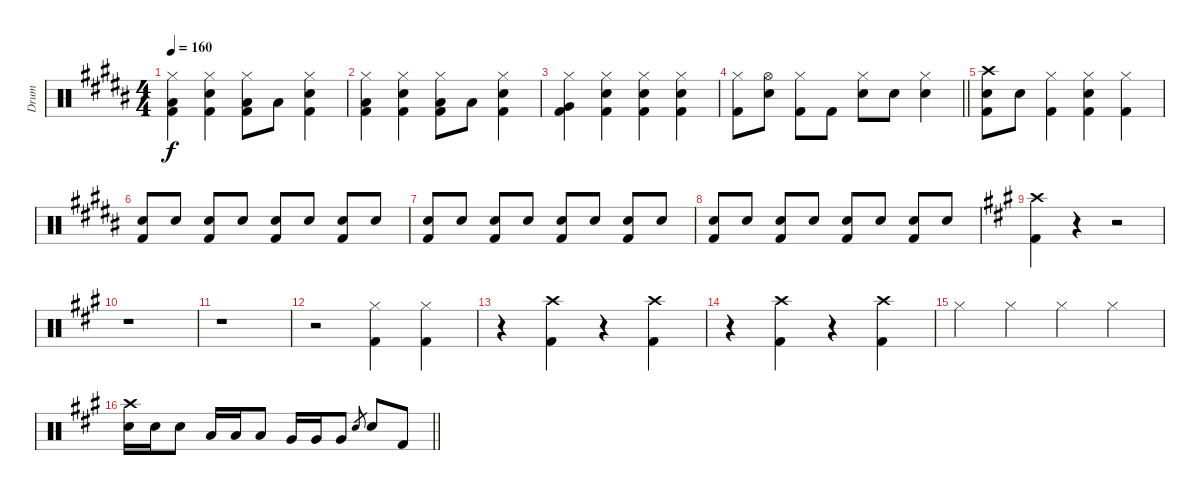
\track ("Drum" "Drum") {instrument percussion}
\staff {score}
\articulation defaults
\ts (4 4)
\tempo 160
\clef neutral
\ks b
("Hi-Hat (closed)" "Kick (hit) 2" "Low Tom (hit)").4{dy f} ("Hi-Hat (closed)" "Snare (hit) 2" "Kick (hit) 2").4 ("Hi-Hat (closed)" "Kick (hit) 2" "Low Tom (hit)").8 "Low Tom (hit)".8 ("Hi-Hat (closed)" "Snare (hit) 2" "Kick (hit) 2").4 |
("Hi-Hat (closed)" "Kick (hit) 2" "Low Tom (hit)").4 ("Hi-Hat (closed)" "Snare (hit) 2" "Kick (hit) 2").4 ("Hi-Hat (closed)" "Kick (hit) 2" "Low Tom (hit)").8 "Low Tom (hit)".8 ("Hi-Hat (closed)" "Snare (hit) 2" "Kick (hit) 2").4 |
("Hi-Hat (closed)" "Kick (hit) 2" "Very Low Tom (hit)").4 ("Hi-Hat (closed)" "Snare (hit) 2" "Kick (hit) 2").4 ("Hi-Hat (closed)" "Snare (hit) 2" "Kick (hit) 2").4 ("Hi-Hat (closed)" "Snare (hit) 2" "Kick (hit) 2").4 |
\barLineRight lightlight
("Hi-Hat (closed)" "Kick (hit) 2").8 ("Hi-Hat (open)" "Snare (hit) 2").8 ("Hi-Hat (closed)" "Kick (hit) 2").8 "Kick (hit) 2".8 ("Hi-Hat (closed)" "Snare (hit) 2").8 "Snare (hit) 2".8 ("Hi-Hat (closed)" "Snare (hit) 2").4 |
("Snare (hit) 2" "Kick (hit) 2" "Crash high (hit)").8 "Snare (hit) 2".8 ("Hi-Hat (closed)" "Kick (hit) 2").4 ("Hi-Hat (closed)" "Snare (hit) 2" "Kick (hit) 2").4 ("Hi-Hat (closed)" "Kick (hit) 2").4 |
("Snare (hit) 2" "Kick (hit) 2").8 "Snare (hit) 2".8 ("Snare (hit) 2" "Kick (hit) 2").8 "Snare (hit) 2".8 ("Snare (hit) 2" "Kick (hit) 2").8 "Snare (hit) 2".8 ("Snare (hit) 2" "Kick (hit) 2").8 "Snare (hit) 2".8 |
("Snare (hit) 2" "Kick (hit) 2").8 "Snare (hit) 2".8 ("Snare (hit) 2" "Kick (hit) 2").8 "Snare (hit) 2".8 ("Snare (hit) 2" "Kick (hit) 2").8 "Snare (hit) 2".8 ("Snare (hit) 2" "Kick (hit) 2").8 "Snare (hit) 2".8 |
("Snare (hit) 2" "Kick (hit) 2").8 "Snare (hit) 2".8 ("Snare (hit) 2" "Kick (hit) 2").8 "Snare (hit) 2".8 ("Snare (hit) 2" "Kick (hit) 2").8 "Snare (hit) 2".8 ("Snare (hit) 2" "Kick (hit) 2").8 "Snare (hit) 2".8 |
\ks a
("Kick (hit) 2" "Crash high (hit)").4 r.4 r.2 |
r.1 |
r.1 |
r.2 ("Hi-Hat (closed)" "Kick (hit) 2").4 ("Hi-Hat (closed)" "Kick (hit) 2").4 |
r.4 ("Kick (hit) 2" "Crash high (hit)").4 r.4 ("Kick (hit) 2" "Crash high (hit)").4 |
r.4 ("Kick (hit) 2" "Crash high (hit)").4 r.4 ("Kick (hit) 2" "Crash high (hit)").4 |
"Hi-Hat (closed)".4 "Hi-Hat (closed)".4 "Hi-Hat (closed)".4 "Hi-Hat (closed)".4 |
\barLineRight lightlight
("Snare (hit) 2" "Crash high (hit)").16 "Snare (hit) 2".16 "Snare (hit) 2".8 "Low Tom (hit)".16 "Low Tom (hit)".16 "Low Tom (hit)".8 "Very Low Tom (hit)".16 "Very Low Tom (hit)".16 "Very Low Tom (hit)".8 "Snare (hit) 2".8{gr} "Snare (hit) 2".8 "Kick (hit) 2".8
